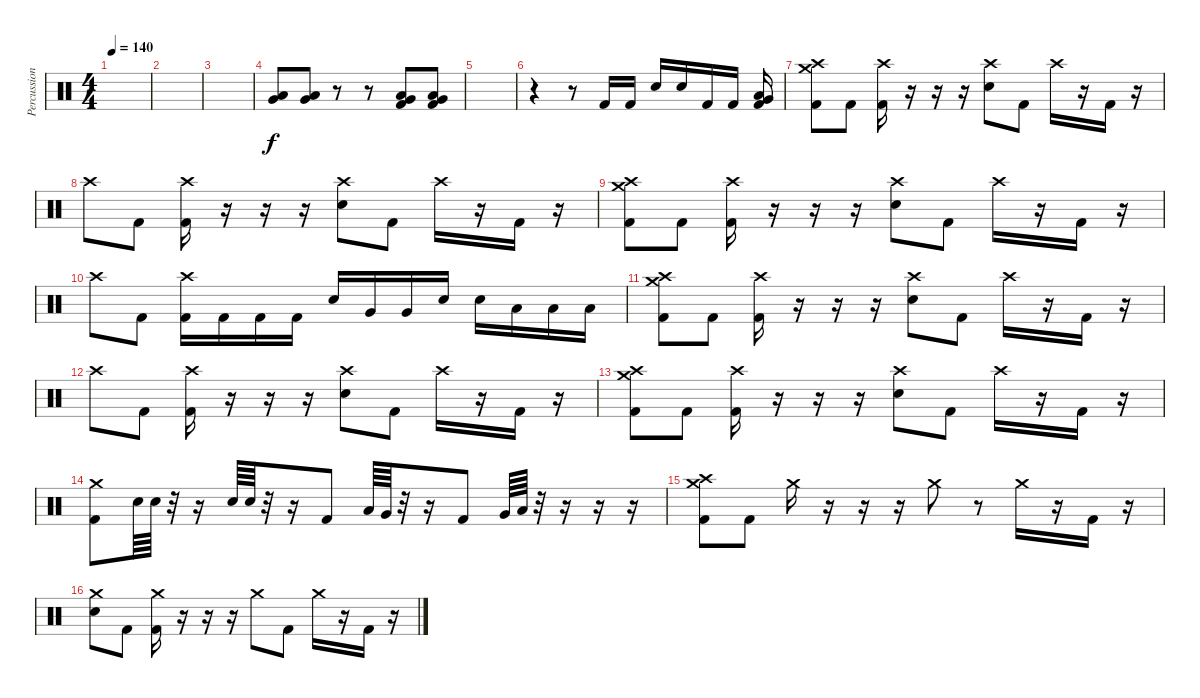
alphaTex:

\track ("Percussioni" "Percussion") {mute instrument percussion}
\staff {score}
\articulation defaults
\ts (4 4)
\tempo 140
\clef neutral
\ks c
|
|
|
("Low Tom (hit)" "Very Low Tom (hit)").8 ("Very Low Tom (hit)" "Low Tom (hit)").8 r.8 r.8 ("Kick (hit) 2" "Low Floor Tom (hit)" "Very Low Tom (hit)").8 ("Kick (hit) 2" "Low Floor Tom (hit)" "Very Low Tom (hit)").8 |
|
r.4 r.8 "Kick (hit) 2".16 "Kick (hit) 2".16 "Snare (hit) 2".16 "Snare (hit) 2".16 "Kick (hit) 2".16 "Kick (hit) 2".16 ("Very Low Tom (hit)" "Low Floor Tom (hit)" "Kick (hit) 2").16 |
("Kick (hit) 2" "Crash high (hit)" "Crash medium (hit)").8 "Kick (hit) 2".8 ("Kick (hit) 2" "Crash high (hit)").16 r.16 r.16 r.16 ("Snare (hit) 2" "Crash high (hit)").8 "Kick (hit) 2".8 "Crash high (hit)".16 r.16 "Kick (hit) 2".16 r.16 |
"Crash high (hit)".8 "Kick (hit) 2".8 ("Kick (hit) 2" "Crash high (hit)").16 r.16 r.16 r.16 ("Snare (hit) 2" "Crash high (hit)").8 "Kick (hit) 2".8 "Crash high (hit)".16 r.16 "Kick (hit) 2".16 r.16 |
("Kick (hit) 2" "Crash high (hit)" "Crash medium (hit)").8 "Kick (hit) 2".8 ("Kick (hit) 2" "Crash high (hit)").16 r.16 r.16 r.16 ("Snare (hit) 2" "Crash high (hit)").8 "Kick (hit) 2".8 "Crash high (hit)".16 r.16 "Kick (hit) 2".16 r.16 |
"Crash high (hit)".8 "Kick (hit) 2".8 ("Kick (hit) 2" "Crash high (hit)").16 "Kick (hit) 2".16 "Kick (hit) 2".16 "Kick (hit) 2".16 "Snare (hit) 2".16 "Very Low Tom (hit)".16 "Very Low Tom (hit)".16 "Snare (hit) 2".16 "Snare (hit) 2".16 "Low Floor Tom (hit)".16 "Low Floor Tom (hit)".16 "Low Floor Tom (hit)".16 |
("Kick (hit) 2" "Crash high (hit)" "Crash medium (hit)").8 "Kick (hit) 2".8 ("Kick (hit) 2" "Crash high (hit)").16 r.16 r.16 r.16 ("Snare (hit) 2" "Crash high (hit)").8 "Kick (hit) 2".8 "Crash high (hit)".16 r.16 "Kick (hit) 2".16 r.16 |
"Crash high (hit)".8 "Kick (hit) 2".8 ("Kick (hit) 2" "Crash high (hit)").16 r.16 r.16 r.16 ("Snare (hit) 2" "Crash high (hit)").8 "Kick (hit) 2".8 "Crash high (hit)".16 r.16 "Kick (hit) 2".16 r.16 |
("Kick (hit) 2" "Crash high (hit)" "Crash medium (hit)").8 "Kick (hit) 2".8 ("Kick (hit) 2" "Crash high (hit)").16 r.16 r.16 r.16 ("Snare (hit) 2" "Crash high (hit)").8 "Kick (hit) 2".8 "Crash high (hit)".16 r.16 "Kick (hit) 2".16 r.16 |
("Kick (hit) 2" "Crash medium (hit)").8 "Snare (hit) 2".64 "Snare (hit) 2".64 r.32 r.16 "Snare (hit) 2".64 "Snare (hit) 2".64 r.32 r.16 "Kick (hit) 2".8 "Low Tom (hit)".64 "Very Low Tom (hit)".64 r.32 r.16 "Kick (hit) 2".8 "Very Low Tom (hit)".64 "Low Floor Tom (hit)".64 r.32 r.16 r.16 r.16 |
("Kick (hit) 2" "Crash high (hit)" "Crash medium (hit)").8 "Kick (hit) 2".8 "Crash medium (hit)".16 r.16 r.16 r.16 "Crash medium (hit)".8 r.8 "Crash medium (hit)".16 r.16 "Kick (hit) 2".16 r.16 |
("Snare (hit) 2" "Crash medium (hit)").8 "Kick (hit) 2".8 ("Kick (hit) 2" "Crash medium (hit)").16 r.16 r.16 r.16 "Crash medium (hit)".8 "Kick (hit) 2".8 "Crash medium (hit)".16 r.16 "Kick (hit) 2".16 r.16
